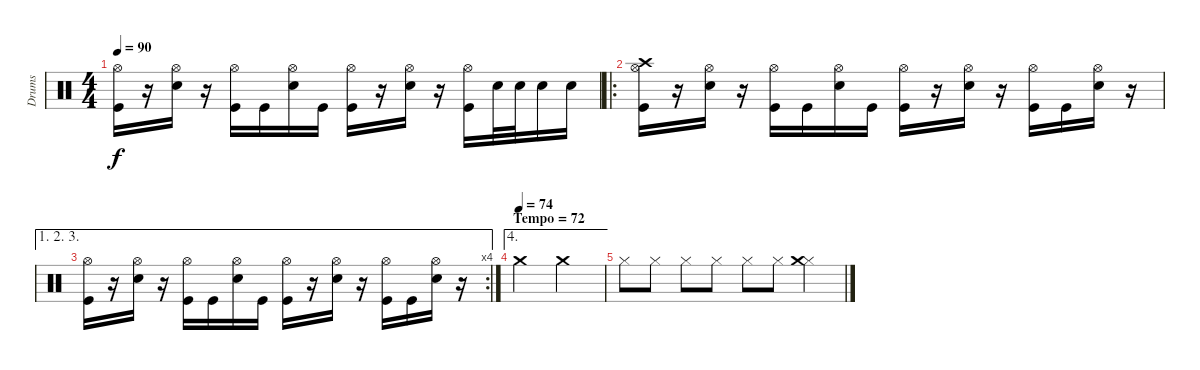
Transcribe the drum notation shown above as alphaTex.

\track ("Drums" "Drums") {instrument percussion}
\staff {score}
\articulation defaults
\ts (4 4)
\tempo 90
\clef neutral
\ks c
("Hi-Hat (open)" "Kick (hit)").16{dy f} r.16 ("Hi-Hat (open)" "Electric Snare (hit)").16 r.16 ("Hi-Hat (open)" "Kick (hit)").16 "Kick (hit)".16 ("Hi-Hat (open)" "Electric Snare (hit)").16 "Kick (hit)".16 ("Hi-Hat (open)" "Kick (hit)").16 r.16 ("Hi-Hat (open)" "Electric Snare (hit)").16 r.16 ("Hi-Hat (open)" "Kick (hit)").16 "Electric Snare (hit)".32 "Electric Snare (hit)".32 "Electric Snare (hit)".16 "Electric Snare (hit)".16 |
\ro
("Crash high (hit)" "Hi-Hat (open)" "Kick (hit)").16 r.16 ("Hi-Hat (open)" "Electric Snare (hit)").16 r.16 ("Hi-Hat (open)" "Kick (hit)").16 "Kick (hit)".16 ("Hi-Hat (open)" "Electric Snare (hit)").16 "Kick (hit)".16 ("Hi-Hat (open)" "Kick (hit)").16 r.16 ("Hi-Hat (open)" "Electric Snare (hit)").16 r.16 ("Hi-Hat (open)" "Kick (hit)").16 "Kick (hit)".16 ("Hi-Hat (open)" "Electric Snare (hit)").16 r.16 |
\ae (1 2 3)
\rc 4
("Hi-Hat (open)" "Kick (hit)").16 r.16 ("Hi-Hat (open)" "Electric Snare (hit)").16 r.16 ("Hi-Hat (open)" "Kick (hit)").16 "Kick (hit)".16 ("Hi-Hat (open)" "Electric Snare (hit)").16 "Kick (hit)".16 ("Hi-Hat (open)" "Kick (hit)").16 r.16 ("Hi-Hat (open)" "Electric Snare (hit)").16 r.16 ("Hi-Hat (open)" "Kick (hit)").16 "Kick (hit)".16 ("Hi-Hat (open)" "Electric Snare (hit)").16 r.16 |
\ae 4
\section ("" "Tempo = 72")
\tempo 72
\tempo (74)
"Crash medium (hit)".2 "Crash medium (hit)".2 |
"Hi-Hat (closed)".8 "Hi-Hat (closed)".8 "Hi-Hat (closed)".8 "Hi-Hat (closed)".8 "Hi-Hat (closed)".8 "Hi-Hat (closed)".8 ("Hi-Hat (closed)" "Crash medium (hit)").4
